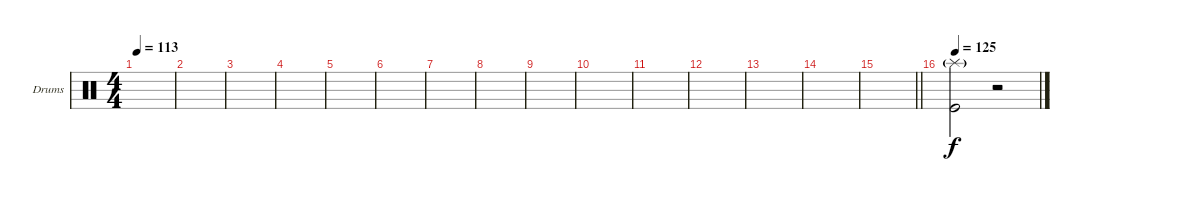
\defaultSystemsLayout 4
\bracketExtendMode groupsimilarinstruments
\firstSystemTrackNameOrientation horizontal
\otherSystemsTrackNameOrientation horizontal
\chordDiagramsInScore
\track ("Drumkit" "Drums") {instrument percussion}
\staff {score}
\articulation defaults
\ts (4 4)
\tempo 113
\clef neutral
\scale
0.333333
\ks c
|
\scale
0.333333 |
\scale
0.333333 |
\scale
0.333333 |
\scale
0.333333 |
\scale
0.333333 |
\scale
0.333333 |
\scale
0.333333 |
\scale
0.333333 |
\scale
0.333333 |
\scale
0.333333 |
\scale
0.333333 |
\scale
0.333333 |
\scale
0.333333 |
\scale
0.333333
\barLineRight lightlight
|
\tempo (125 0.0192308)
\scale
0.333333 ("Kick (hit)" "Splash (hit)"{g}).2 r.2
